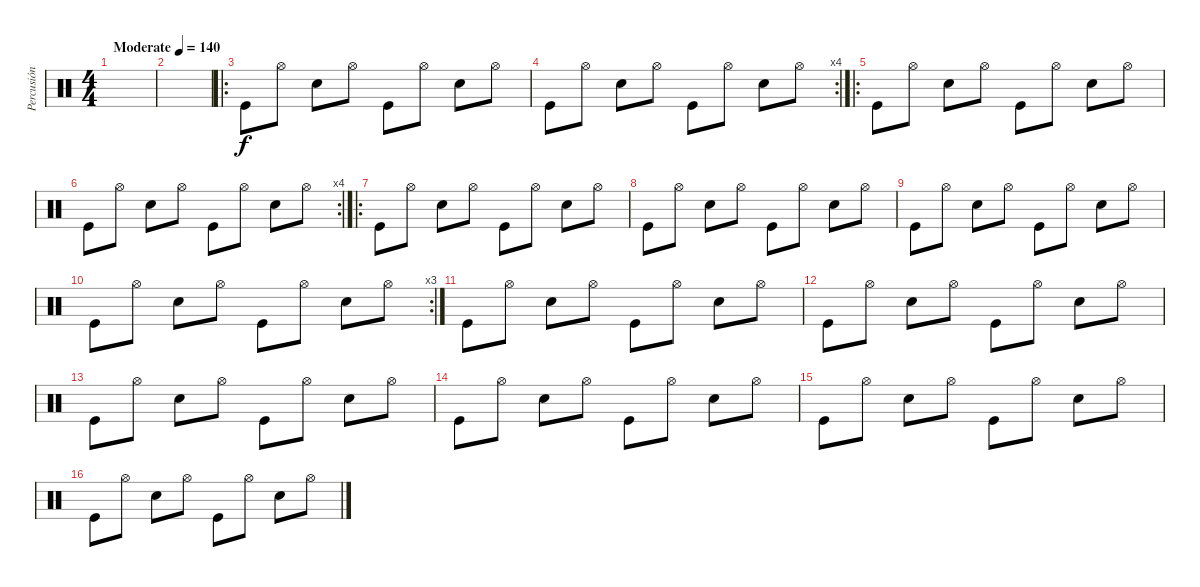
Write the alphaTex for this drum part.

\track ("Percusión" "Percusión") {instrument percussion}
\staff {score}
\articulation defaults
\ts (4 4)
\tempo (140 "Moderate")
\clef neutral
\ks c
|
|
\ro "Kick (hit)".8 "Hi-Hat (open)".8 "Electric Snare (hit)".8 "Hi-Hat (open)".8 "Kick (hit)".8 "Hi-Hat (open)".8 "Electric Snare (hit)".8 "Hi-Hat (open)".8
|
\rc 4 "Kick (hit)".8 "Hi-Hat (open)".8 "Electric Snare (hit)".8 "Hi-Hat (open)".8 "Kick (hit)".8 "Hi-Hat (open)".8 "Electric Snare (hit)".8 "Hi-Hat (open)".8
|
\ro "Kick (hit)".8 "Hi-Hat (open)".8 "Electric Snare (hit)".8 "Hi-Hat (open)".8 "Kick (hit)".8 "Hi-Hat (open)".8 "Electric Snare (hit)".8 "Hi-Hat (open)".8
|
\rc 4 "Kick (hit)".8 "Hi-Hat (open)".8 "Electric Snare (hit)".8 "Hi-Hat (open)".8 "Kick (hit)".8 "Hi-Hat (open)".8 "Electric Snare (hit)".8 "Hi-Hat (open)".8
|
\ro "Kick (hit)".8 "Hi-Hat (open)".8 "Electric Snare (hit)".8 "Hi-Hat (open)".8 "Kick (hit)".8 "Hi-Hat (open)".8 "Electric Snare (hit)".8 "Hi-Hat (open)".8
|
"Kick (hit)".8 "Hi-Hat (open)".8 "Electric Snare (hit)".8 "Hi-Hat (open)".8 "Kick (hit)".8 "Hi-Hat (open)".8 "Electric Snare (hit)".8 "Hi-Hat (open)".8 |
"Kick (hit)".8 "Hi-Hat (open)".8 "Electric Snare (hit)".8 "Hi-Hat (open)".8 "Kick (hit)".8 "Hi-Hat (open)".8 "Electric Snare (hit)".8 "Hi-Hat (open)".8 |
\rc 3 "Kick (hit)".8 "Hi-Hat (open)".8 "Electric Snare (hit)".8 "Hi-Hat (open)".8 "Kick (hit)".8 "Hi-Hat (open)".8 "Electric Snare (hit)".8 "Hi-Hat (open)".8
|
"Kick (hit)".8 "Hi-Hat (open)".8 "Electric Snare (hit)".8 "Hi-Hat (open)".8 "Kick (hit)".8 "Hi-Hat (open)".8 "Electric Snare (hit)".8 "Hi-Hat (open)".8 |
"Kick (hit)".8 "Hi-Hat (open)".8 "Electric Snare (hit)".8 "Hi-Hat (open)".8 "Kick (hit)".8 "Hi-Hat (open)".8 "Electric Snare (hit)".8 "Hi-Hat (open)".8 |
"Kick (hit)".8 "Hi-Hat (open)".8 "Electric Snare (hit)".8 "Hi-Hat (open)".8 "Kick (hit)".8 "Hi-Hat (open)".8 "Electric Snare (hit)".8 "Hi-Hat (open)".8 |
"Kick (hit)".8 "Hi-Hat (open)".8 "Electric Snare (hit)".8 "Hi-Hat (open)".8 "Kick (hit)".8 "Hi-Hat (open)".8 "Electric Snare (hit)".8 "Hi-Hat (open)".8 |
"Kick (hit)".8 "Hi-Hat (open)".8 "Electric Snare (hit)".8 "Hi-Hat (open)".8 "Kick (hit)".8 "Hi-Hat (open)".8 "Electric Snare (hit)".8 "Hi-Hat (open)".8 |
"Kick (hit)".8 "Hi-Hat (open)".8 "Electric Snare (hit)".8 "Hi-Hat (open)".8 "Kick (hit)".8 "Hi-Hat (open)".8 "Electric Snare (hit)".8 "Hi-Hat (open)".8
